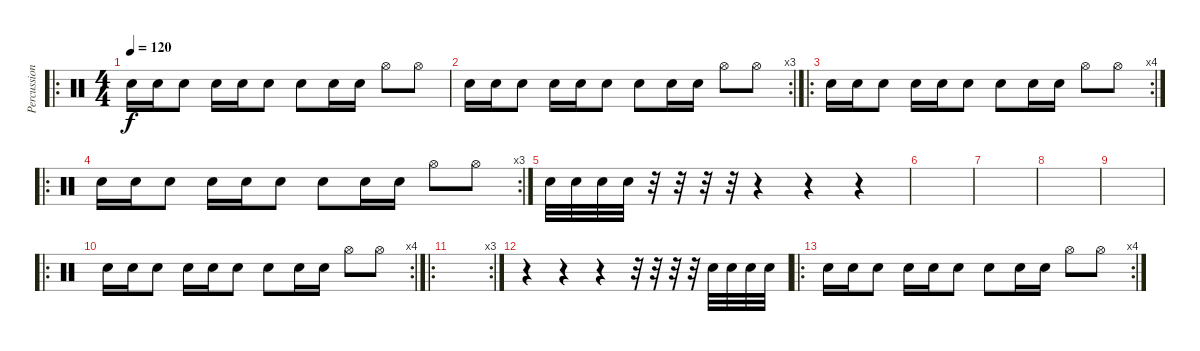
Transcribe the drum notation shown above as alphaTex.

\track ("Percussion" "Percussion") {instrument percussion}
\staff {score}
\articulation defaults
\ro
\ts (4 4)
\tempo 120
\clef neutral
\ks c "Electric Snare (hit)".16{dy f} "Electric Snare (hit)".16 "Snare (hit) 2".8 "Electric Snare (hit)".16 "Electric Snare (hit)".16 "Snare (hit) 2".8 "Snare (hit) 2".8 "Electric Snare (hit)".16 "Electric Snare (hit)".16 "Hi-Hat (open)".8 "Hi-Hat (open)".8
|
\rc 3 "Electric Snare (hit)".16 "Electric Snare (hit)".16 "Snare (hit) 2".8 "Electric Snare (hit)".16 "Electric Snare (hit)".16 "Snare (hit) 2".8 "Snare (hit) 2".8 "Electric Snare (hit)".16 "Electric Snare (hit)".16 "Hi-Hat (open)".8 "Hi-Hat (open)".8
|
\ro
\rc 4 "Electric Snare (hit)".16 "Electric Snare (hit)".16 "Snare (hit) 2".8 "Electric Snare (hit)".16 "Electric Snare (hit)".16 "Snare (hit) 2".8 "Snare (hit) 2".8 "Electric Snare (hit)".16 "Electric Snare (hit)".16 "Hi-Hat (open)".8 "Hi-Hat (open)".8
|
\ro
\rc 3 "Electric Snare (hit)".16 "Electric Snare (hit)".16 "Snare (hit) 2".8 "Electric Snare (hit)".16 "Electric Snare (hit)".16 "Snare (hit) 2".8 "Snare (hit) 2".8 "Electric Snare (hit)".16 "Electric Snare (hit)".16 "Hi-Hat (open)".8 "Hi-Hat (open)".8
|
"Electric Snare (hit)".32 "Electric Snare (hit)".32 "Electric Snare (hit)".32 "Electric Snare (hit)".32 r.32 r.32 r.32 r.32 r.4 r.4 r.4 |
|
|
|
|
\ro
\rc 4 "Electric Snare (hit)".16 "Electric Snare (hit)".16 "Snare (hit) 2".8 "Electric Snare (hit)".16 "Electric Snare (hit)".16 "Snare (hit) 2".8 "Snare (hit) 2".8 "Electric Snare (hit)".16 "Electric Snare (hit)".16 "Hi-Hat (open)".8 "Hi-Hat (open)".8
|
\ro
\rc 3
|
r.4 r.4 r.4 r.32 r.32 r.32 r.32 "Electric Snare (hit)".32 "Electric Snare (hit)".32 "Electric Snare (hit)".32 "Electric Snare (hit)".32 |
\ro
\rc 4 "Electric Snare (hit)".16 "Electric Snare (hit)".16 "Snare (hit) 2".8 "Electric Snare (hit)".16 "Electric Snare (hit)".16 "Snare (hit) 2".8 "Snare (hit) 2".8 "Electric Snare (hit)".16 "Electric Snare (hit)".16 "Hi-Hat (open)".8 "Hi-Hat (open)".8
